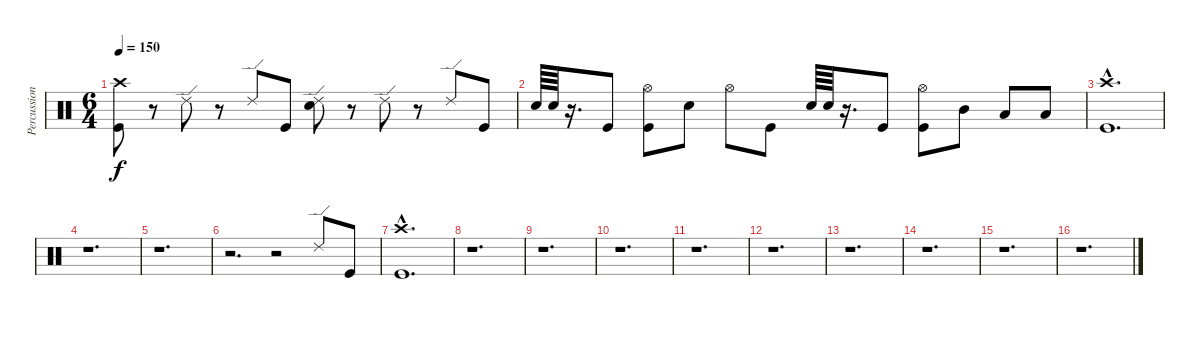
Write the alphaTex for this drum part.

\track ("Percussion" "Percussion") {instrument percussion}
\staff {score}
\articulation defaults
\ts (6 4)
\tempo 150
\clef neutral
\ks c
("Crash high (hit)" "Kick (hit)").8{dy f} r.8 "Ride (edge) 2".8 r.8 "Ride (edge) 2".8 "Kick (hit)".8 ("Ride (edge) 2" "Snare (hit) 2").8 r.8 "Ride (edge) 2".8 r.8 "Ride (edge) 2".8 "Kick (hit)".8 |
"Snare (hit) 2".64 "Snare (hit) 2".64 r.16{d} "Kick (hit)".8 ("Hi-Hat (open)" "Kick (hit)").8 "Snare (hit) 2".8 "Hi-Hat (open)".8 "Kick (hit)".8 "Snare (hit) 2".64 "Snare (hit) 2".64 r.16{d} "Kick (hit)".8 ("Hi-Hat (open)" "Kick (hit)").8 "Mid Tom (hit)".8 "Low Tom (hit)".8 "Low Tom (hit)".8 |
("Crash high (hit)"{hac} "Kick (hit)"{hac}).1{d} |
r.1{d} |
r.1{d} |
r.2{d} r.2 "Ride (edge) 2".8 "Kick (hit)".8 |
("Crash high (hit)"{hac} "Kick (hit)"{hac}).1{d} |
r.1{d} |
r.1{d} |
r.1{d} |
r.1{d} |
r.1{d} |
r.1{d} |
r.1{d} |
r.1{d} |
r.1{d}
